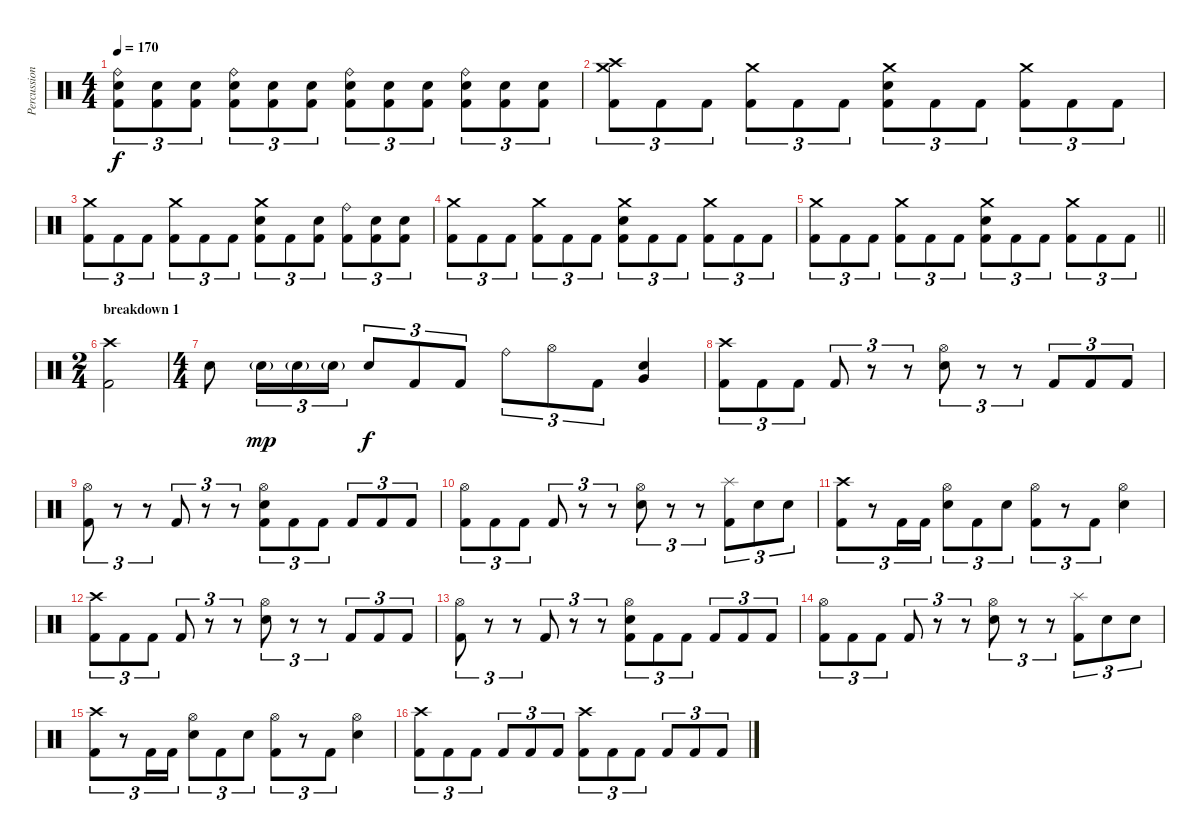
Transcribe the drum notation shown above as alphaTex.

\track ("Percussion" "Percussion") {instrument percussion}
\staff {score}
\articulation defaults
\ts (4 4)
\tempo 170
\clef neutral
\ks c
("Ride (bell)" "Electric Snare (hit)" "Kick (hit) 2").8{tu (3 2) dy f} ("Electric Snare (hit)" "Kick (hit) 2").8{tu (3 2)} ("Electric Snare (hit)" "Kick (hit) 2").8{tu (3 2)} ("Ride (bell)" "Electric Snare (hit)" "Kick (hit) 2").8{tu (3 2)} ("Electric Snare (hit)" "Kick (hit) 2").8{tu (3 2)} ("Electric Snare (hit)" "Kick (hit) 2").8{tu (3 2)} ("Ride (bell)" "Electric Snare (hit)" "Kick (hit) 2").8{tu (3 2)} ("Electric Snare (hit)" "Kick (hit) 2").8{tu (3 2)} ("Electric Snare (hit)" "Kick (hit) 2").8{tu (3 2)} ("Ride (bell)" "Electric Snare (hit)" "Kick (hit) 2").8{tu (3 2)} ("Electric Snare (hit)" "Kick (hit) 2").8{tu (3 2)} ("Electric Snare (hit)" "Kick (hit) 2").8{tu (3 2)} |
("Crash high (hit)" "Crash medium (hit)" "Kick (hit) 2").8{tu (3 2)} "Kick (hit) 2".8{tu (3 2)} "Kick (hit) 2".8{tu (3 2)} ("Crash medium (hit)" "Kick (hit) 2").8{tu (3 2)} "Kick (hit) 2".8{tu (3 2)} "Kick (hit) 2".8{tu (3 2)} ("Crash medium (hit)" "Electric Snare (hit)" "Kick (hit) 2").8{tu (3 2)} "Kick (hit) 2".8{tu (3 2)} "Kick (hit) 2".8{tu (3 2)} ("Crash medium (hit)" "Kick (hit) 2").8{tu (3 2)} "Kick (hit) 2".8{tu (3 2)} "Kick (hit) 2".8{tu (3 2)} |
("Crash medium (hit)" "Kick (hit) 2").8{tu (3 2)} "Kick (hit) 2".8{tu (3 2)} "Kick (hit) 2".8{tu (3 2)} ("Crash medium (hit)" "Kick (hit) 2").8{tu (3 2)} "Kick (hit) 2".8{tu (3 2)} "Kick (hit) 2".8{tu (3 2)} ("Crash medium (hit)" "Electric Snare (hit)" "Kick (hit) 2").8{tu (3 2)} "Kick (hit) 2".8{tu (3 2)} ("Electric Snare (hit)" "Kick (hit) 2").8{tu (3 2)} ("Ride (bell)" "Kick (hit) 2").8{tu (3 2)} ("Electric Snare (hit)" "Kick (hit) 2").8{tu (3 2)} ("Electric Snare (hit)" "Kick (hit) 2").8{tu (3 2)} |
("Crash medium (hit)" "Kick (hit) 2").8{tu (3 2)} "Kick (hit) 2".8{tu (3 2)} "Kick (hit) 2".8{tu (3 2)} ("Crash medium (hit)" "Kick (hit) 2").8{tu (3 2)} "Kick (hit) 2".8{tu (3 2)} "Kick (hit) 2".8{tu (3 2)} ("Crash medium (hit)" "Electric Snare (hit)" "Kick (hit) 2").8{tu (3 2)} "Kick (hit) 2".8{tu (3 2)} "Kick (hit) 2".8{tu (3 2)} ("Crash medium (hit)" "Kick (hit) 2").8{tu (3 2)} "Kick (hit) 2".8{tu (3 2)} "Kick (hit) 2".8{tu (3 2)} |
\barLineRight lightlight
("Crash medium (hit)" "Kick (hit) 2").8{tu (3 2)} "Kick (hit) 2".8{tu (3 2)} "Kick (hit) 2".8{tu (3 2)} ("Crash medium (hit)" "Kick (hit) 2").8{tu (3 2)} "Kick (hit) 2".8{tu (3 2)} "Kick (hit) 2".8{tu (3 2)} ("Crash medium (hit)" "Electric Snare (hit)" "Kick (hit) 2").8{tu (3 2)} "Kick (hit) 2".8{tu (3 2)} "Kick (hit) 2".8{tu (3 2)} ("Crash medium (hit)" "Kick (hit) 2").8{tu (3 2)} "Kick (hit) 2".8{tu (3 2)} "Kick (hit) 2".8{tu (3 2)} |
\ts (2 4)
\section ("" "breakdown 1")
("Crash high (hit)" "Kick (hit) 2").2 |
\ts (4 4)
"Electric Snare (hit)".8 "Electric Snare (hit)"{g}.16{tu (3 2) dy mp} "Electric Snare (hit)"{g}.16{tu (3 2)} "Electric Snare (hit)"{g}.16{tu (3 2)} "Electric Snare (hit)".8{tu (3 2) dy f} "Kick (hit) 2".8{tu (3 2)} "Kick (hit) 2".8{tu (3 2)} "Ride (bell)".8{tu (3 2)} "Hi-Hat (open)".8{tu (3 2)} "Kick (hit) 2".8{tu (3 2)} ("Very Low Tom (hit)" "Electric Snare (hit)").4 |
("Crash high (hit)" "Kick (hit) 2").8{tu (3 2)} "Kick (hit) 2".8{tu (3 2)} "Kick (hit) 2".8{tu (3 2)} "Kick (hit) 2".8{tu (3 2)} r.8{tu (3 2)} r.8{tu (3 2)} ("Hi-Hat (open)" "Electric Snare (hit)").8{tu (3 2)} r.8{tu (3 2)} r.8{tu (3 2)} "Kick (hit) 2".8{tu (3 2)} "Kick (hit) 2".8{tu (3 2)} "Kick (hit) 2".8{tu (3 2)} |
("Hi-Hat (open)" "Kick (hit) 2").8{tu (3 2)} r.8{tu (3 2)} r.8{tu (3 2)} "Kick (hit) 2".8{tu (3 2)} r.8{tu (3 2)} r.8{tu (3 2)} ("Hi-Hat (open)" "Electric Snare (hit)" "Kick (hit) 2").8{tu (3 2)} "Kick (hit) 2".8{tu (3 2)} "Kick (hit) 2".8{tu (3 2)} "Kick (hit) 2".8{tu (3 2)} "Kick (hit) 2".8{tu (3 2)} "Kick (hit) 2".8{tu (3 2)} |
("Hi-Hat (open)" "Kick (hit) 2").8{tu (3 2)} "Kick (hit) 2".8{tu (3 2)} "Kick (hit) 2".8{tu (3 2)} "Kick (hit) 2".8{tu (3 2)} r.8{tu (3 2)} r.8{tu (3 2)} ("Hi-Hat (open)" "Electric Snare (hit)").8{tu (3 2)} r.8{tu (3 2)} r.8{tu (3 2)} ("Splash (hit)" "Kick (hit) 2").8{tu (3 2)} "Electric Snare (hit)".8{tu (3 2)} "Electric Snare (hit)".8{tu (3 2)} |
("Crash high (hit)" "Kick (hit) 2").8{tu (3 2)} r.8{tu (3 2)} "Kick (hit) 2".16{tu (3 2)} "Kick (hit) 2".16{tu (3 2)} ("Hi-Hat (open)" "Electric Snare (hit)").8{tu (3 2)} "Kick (hit) 2".8{tu (3 2)} "Electric Snare (hit)".8{tu (3 2)} ("Hi-Hat (open)" "Kick (hit) 2").8{tu (3 2)} r.8{tu (3 2)} "Kick (hit) 2".8{tu (3 2)} ("Hi-Hat (open)" "Electric Snare (hit)").4 |
("Crash high (hit)" "Kick (hit) 2").8{tu (3 2)} "Kick (hit) 2".8{tu (3 2)} "Kick (hit) 2".8{tu (3 2)} "Kick (hit) 2".8{tu (3 2)} r.8{tu (3 2)} r.8{tu (3 2)} ("Hi-Hat (open)" "Electric Snare (hit)").8{tu (3 2)} r.8{tu (3 2)} r.8{tu (3 2)} "Kick (hit) 2".8{tu (3 2)} "Kick (hit) 2".8{tu (3 2)} "Kick (hit) 2".8{tu (3 2)} |
("Hi-Hat (open)" "Kick (hit) 2").8{tu (3 2)} r.8{tu (3 2)} r.8{tu (3 2)} "Kick (hit) 2".8{tu (3 2)} r.8{tu (3 2)} r.8{tu (3 2)} ("Hi-Hat (open)" "Electric Snare (hit)" "Kick (hit) 2").8{tu (3 2)} "Kick (hit) 2".8{tu (3 2)} "Kick (hit) 2".8{tu (3 2)} "Kick (hit) 2".8{tu (3 2)} "Kick (hit) 2".8{tu (3 2)} "Kick (hit) 2".8{tu (3 2)} |
("Hi-Hat (open)" "Kick (hit) 2").8{tu (3 2)} "Kick (hit) 2".8{tu (3 2)} "Kick (hit) 2".8{tu (3 2)} "Kick (hit) 2".8{tu (3 2)} r.8{tu (3 2)} r.8{tu (3 2)} ("Hi-Hat (open)" "Electric Snare (hit)").8{tu (3 2)} r.8{tu (3 2)} r.8{tu (3 2)} ("Splash (hit)" "Kick (hit) 2").8{tu (3 2)} "Electric Snare (hit)".8{tu (3 2)} "Electric Snare (hit)".8{tu (3 2)} |
("Crash high (hit)" "Kick (hit) 2").8{tu (3 2)} r.8{tu (3 2)} "Kick (hit) 2".16{tu (3 2)} "Kick (hit) 2".16{tu (3 2)} ("Hi-Hat (open)" "Electric Snare (hit)").8{tu (3 2)} "Kick (hit) 2".8{tu (3 2)} "Electric Snare (hit)".8{tu (3 2)} ("Hi-Hat (open)" "Kick (hit) 2").8{tu (3 2)} r.8{tu (3 2)} "Kick (hit) 2".8{tu (3 2)} ("Hi-Hat (open)" "Electric Snare (hit)").4 |
("Crash high (hit)" "Kick (hit) 2").8{tu (3 2)} "Kick (hit) 2".8{tu (3 2)} "Kick (hit) 2".8{tu (3 2)} "Kick (hit) 2".8{tu (3 2)} "Kick (hit) 2".8{tu (3 2)} "Kick (hit) 2".8{tu (3 2)} ("Crash high (hit)" "Kick (hit) 2").8{tu (3 2)} "Kick (hit) 2".8{tu (3 2)} "Kick (hit) 2".8{tu (3 2)} "Kick (hit) 2".8{tu (3 2)} "Kick (hit) 2".8{tu (3 2)} "Kick (hit) 2".8{tu (3 2)}
